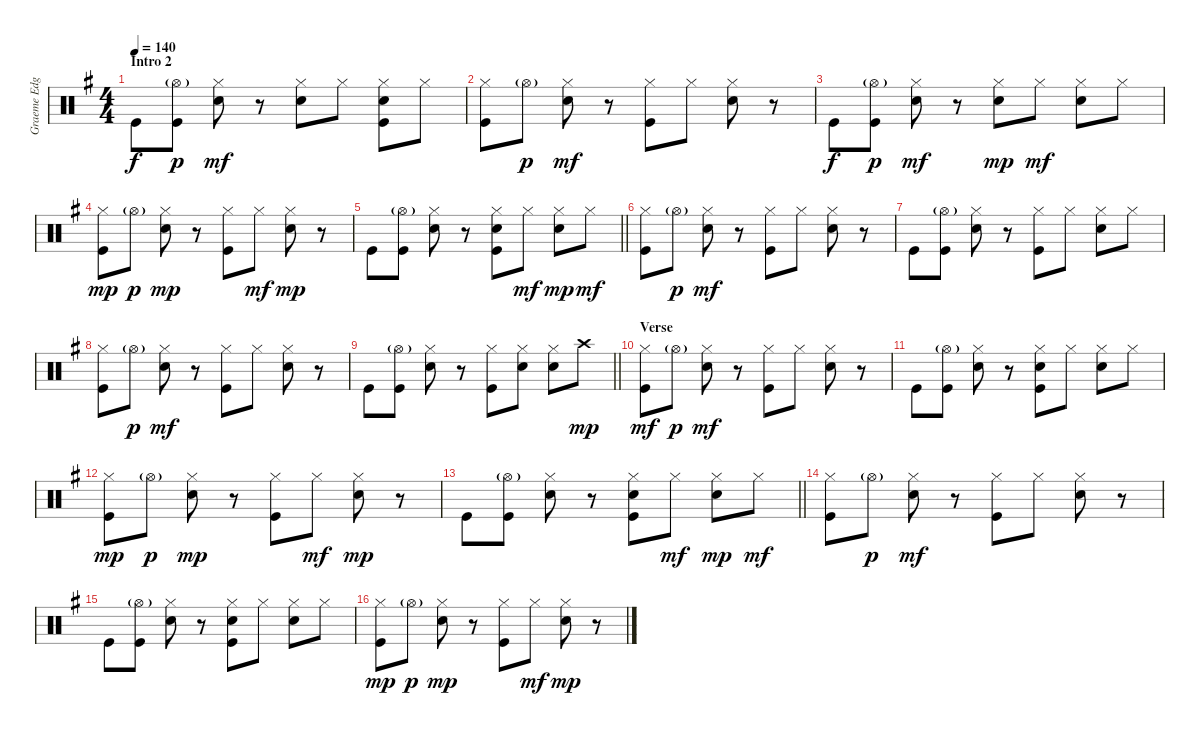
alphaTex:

\track ("Graeme Edge" "Graeme Edg") {instrument percussion}
\staff {score}
\articulation defaults
\ts (4 4)
\section ("" "Intro 2")
\tempo 140
\clef neutral
\ks g "Kick (hit)".8{dy f}
("Hi-Hat (open)"{g} "Kick (hit)").8{dy p} ("Hi-Hat (closed)" "Snare (hit) 2").8{dy mf} r.8 ("Hi-Hat (closed)" "Hand Clap (hit)").8 "Hi-Hat (closed)".8 ("Hi-Hat (closed)" "Snare (hit) 2" "Kick (hit)").8 "Hi-Hat (closed)".8 |
("Hi-Hat (closed)" "Kick (hit)").8 "Hi-Hat (open)"{g}.8{dy p} ("Hi-Hat (closed)" "Snare (hit) 2").8{dy mf} r.8 ("Hi-Hat (closed)" "Kick (hit)").8 "Hi-Hat (closed)".8 ("Hi-Hat (closed)" "Snare (hit) 2").8 r.8 |
"Kick (hit)".8{dy f} ("Hi-Hat (open)"{g} "Kick (hit)").8{dy p} ("Hi-Hat (closed)" "Snare (hit) 2").8{dy mf} r.8 ("Hi-Hat (closed)" "Hand Clap (hit)").8{dy mp} "Hi-Hat (closed)".8{dy mf} ("Hi-Hat (closed)" "Snare (hit) 2").8 "Hi-Hat (closed)".8 |
("Hi-Hat (closed)" "Kick (hit)").8{dy mp} "Hi-Hat (open)"{g}.8{dy p} ("Hi-Hat (closed)" "Snare (hit) 2").8{dy mp} r.8 ("Hi-Hat (closed)" "Kick (hit)").8 "Hi-Hat (closed)".8{dy mf} ("Hi-Hat (closed)" "Snare (hit) 2").8{dy mp} r.8 |
\barLineRight lightlight "Kick (hit)".8
("Hi-Hat (open)"{g} "Kick (hit)").8 ("Hi-Hat (closed)" "Snare (hit) 2").8 r.8 ("Hi-Hat (closed)" "Hand Clap (hit)" "Kick (hit)").8 "Hi-Hat (closed)".8{dy mf} ("Hi-Hat (closed)" "Snare (hit) 2").8{dy mp} "Hi-Hat (closed)".8{dy mf} |
\section ("" "")
("Hi-Hat (closed)" "Kick (hit)").8 "Hi-Hat (open)"{g}.8{dy p} ("Hi-Hat (closed)" "Snare (hit) 2").8{dy mf} r.8 ("Hi-Hat (closed)" "Kick (hit)").8 "Hi-Hat (closed)".8 ("Hi-Hat (closed)" "Snare (hit) 2").8 r.8 |
"Kick (hit)".8 ("Hi-Hat (open)"{g} "Kick (hit)").8 ("Hi-Hat (closed)" "Snare (hit) 2").8 r.8 ("Hi-Hat (closed)" "Kick (hit)").8 "Hi-Hat (closed)".8 ("Hi-Hat (closed)" "Snare (hit) 2").8 "Hi-Hat (closed)".8 |
("Hi-Hat (closed)" "Kick (hit)").8 "Hi-Hat (open)"{g}.8{dy p} ("Hi-Hat (closed)" "Snare (hit) 2").8{dy mf} r.8 ("Hi-Hat (closed)" "Kick (hit)").8 "Hi-Hat (closed)".8 ("Hi-Hat (closed)" "Snare (hit) 2").8 r.8 |
\barLineRight lightlight "Kick (hit)".8
("Hi-Hat (open)"{g} "Kick (hit)").8 ("Hi-Hat (closed)" "Snare (hit) 2").8 r.8 ("Hi-Hat (closed)" "Kick (hit)").8 ("Hi-Hat (closed)" "Snare (hit) 2").8 ("Hi-Hat (closed)" "Snare (hit) 2").8 "Crash high (hit)".8{dy mp} |
\section ("" "Verse")
("Hi-Hat (closed)" "Kick (hit)").8{dy mf} "Hi-Hat (open)"{g}.8{dy p} ("Hi-Hat (closed)" "Snare (hit) 2").8{dy mf} r.8 ("Hi-Hat (closed)" "Kick (hit)").8 "Hi-Hat (closed)".8 ("Hi-Hat (closed)" "Snare (hit) 2").8 r.8 |
"Kick (hit)".8 ("Hi-Hat (open)"{g} "Kick (hit)").8 ("Hi-Hat (closed)" "Snare (hit) 2").8 r.8 ("Hi-Hat (closed)" "Hand Clap (hit)" "Kick (hit)").8 "Hi-Hat (closed)".8 ("Hi-Hat (closed)" "Snare (hit) 2").8 "Hi-Hat (closed)".8 |
("Hi-Hat (closed)" "Kick (hit)").8{dy mp} "Hi-Hat (open)"{g}.8{dy p} ("Hi-Hat (closed)" "Snare (hit) 2").8{dy mp} r.8 ("Hi-Hat (closed)" "Kick (hit)").8 "Hi-Hat (closed)".8{dy mf} ("Hi-Hat (closed)" "Snare (hit) 2").8{dy mp} r.8 |
\barLineRight lightlight "Kick (hit)".8
("Hi-Hat (open)"{g} "Kick (hit)").8 ("Hi-Hat (closed)" "Snare (hit) 2").8 r.8 ("Hi-Hat (closed)" "Hand Clap (hit)" "Kick (hit)").8 "Hi-Hat (closed)".8{dy mf} ("Hi-Hat (closed)" "Snare (hit) 2").8{dy mp} "Hi-Hat (closed)".8{dy mf} |
\section ("" "")
("Hi-Hat (closed)" "Kick (hit)").8 "Hi-Hat (open)"{g}.8{dy p} ("Hi-Hat (closed)" "Snare (hit) 2").8{dy mf} r.8 ("Hi-Hat (closed)" "Kick (hit)").8 "Hi-Hat (closed)".8 ("Hi-Hat (closed)" "Snare (hit) 2").8 r.8 |
"Kick (hit)".8 ("Hi-Hat (open)"{g} "Kick (hit)").8 ("Hi-Hat (closed)" "Snare (hit) 2").8 r.8 ("Hi-Hat (closed)" "Hand Clap (hit)" "Kick (hit)").8 "Hi-Hat (closed)".8 ("Hi-Hat (closed)" "Snare (hit) 2").8 "Hi-Hat (closed)".8 |
("Hi-Hat (closed)" "Kick (hit)").8{dy mp} "Hi-Hat (open)"{g}.8{dy p} ("Hi-Hat (closed)" "Snare (hit) 2").8{dy mp} r.8 ("Hi-Hat (closed)" "Kick (hit)").8 "Hi-Hat (closed)".8{dy mf} ("Hi-Hat (closed)" "Snare (hit) 2").8{dy mp} r.8
